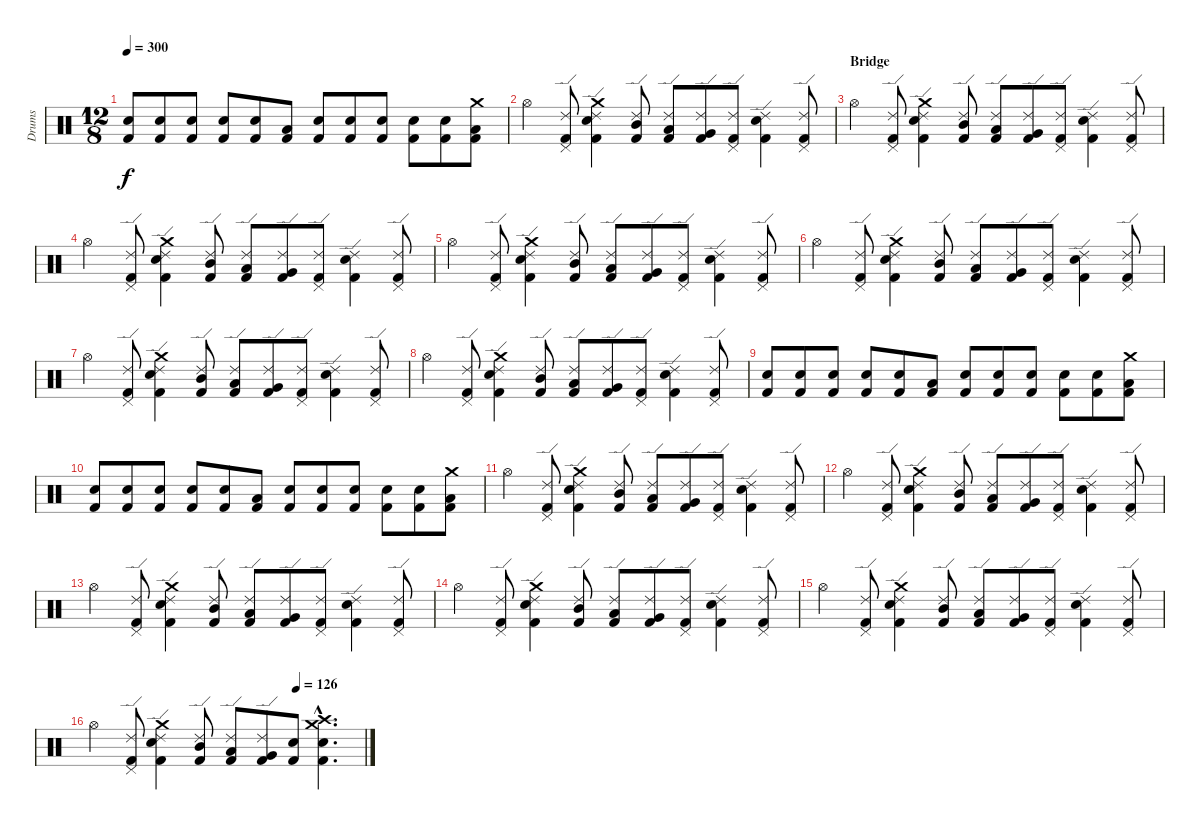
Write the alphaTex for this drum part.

\track ("Drums" "Drums") {instrument percussion}
\staff {score}
\articulation defaults
\ts (12 8)
\tempo 300
\clef neutral
\ks c
("Snare (hit) 2" "Kick (hit) 2").8{dy f} ("Snare (hit) 2" "Kick (hit) 2").8 ("Snare (hit) 2" "Kick (hit) 2").8 ("Snare (hit) 2" "Kick (hit) 2").8 ("Snare (hit) 2" "Kick (hit) 2").8 ("Low Tom (hit)" "Kick (hit) 2").8 ("Snare (hit) 2" "Kick (hit) 2").8 ("Snare (hit) 2" "Kick (hit) 2").8 ("Snare (hit) 2" "Kick (hit) 2").8 ("Snare (hit) 2" "Kick (hit) 2").8 ("Snare (hit) 2" "Kick (hit) 2").8 ("Crash medium (hit)" "Low Tom (hit)" "Kick (hit) 2").8 |
"Hi-Hat (open)".4 ("Ride (edge) 2" "Pedal Hi-Hat (hit)" "Kick (hit) 2").8 ("Ride (edge) 2" "Crash medium (hit)" "Snare (hit) 2" "Kick (hit) 2").4 ("Ride (edge) 2" "Mid Tom (hit)" "Kick (hit) 2").8 ("Ride (edge) 2" "Low Tom (hit)" "Kick (hit) 2").8 ("Ride (edge) 2" "Very Low Tom (hit)" "Kick (hit) 2").8 ("Ride (edge) 2" "Pedal Hi-Hat (hit)" "Kick (hit) 2").8 ("Ride (edge) 2" "Snare (hit) 2" "Kick (hit) 2").4 ("Ride (edge) 2" "Pedal Hi-Hat (hit)" "Kick (hit) 2").8 |
\section ("" "Bridge")
"Hi-Hat (open)".4 ("Ride (edge) 2" "Pedal Hi-Hat (hit)" "Kick (hit) 2").8 ("Ride (edge) 2" "Crash medium (hit)" "Snare (hit) 2" "Kick (hit) 2").4 ("Ride (edge) 2" "Mid Tom (hit)" "Kick (hit) 2").8 ("Ride (edge) 2" "Low Tom (hit)" "Kick (hit) 2").8 ("Ride (edge) 2" "Very Low Tom (hit)" "Kick (hit) 2").8 ("Ride (edge) 2" "Pedal Hi-Hat (hit)" "Kick (hit) 2").8 ("Ride (edge) 2" "Snare (hit) 2" "Kick (hit) 2").4 ("Ride (edge) 2" "Pedal Hi-Hat (hit)" "Kick (hit) 2").8 |
"Hi-Hat (open)".4 ("Ride (edge) 2" "Pedal Hi-Hat (hit)" "Kick (hit) 2").8 ("Ride (edge) 2" "Crash medium (hit)" "Snare (hit) 2" "Kick (hit) 2").4 ("Ride (edge) 2" "Mid Tom (hit)" "Kick (hit) 2").8 ("Ride (edge) 2" "Low Tom (hit)" "Kick (hit) 2").8 ("Ride (edge) 2" "Very Low Tom (hit)" "Kick (hit) 2").8 ("Ride (edge) 2" "Pedal Hi-Hat (hit)" "Kick (hit) 2").8 ("Ride (edge) 2" "Snare (hit) 2" "Kick (hit) 2").4 ("Ride (edge) 2" "Pedal Hi-Hat (hit)" "Kick (hit) 2").8 |
"Hi-Hat (open)".4 ("Ride (edge) 2" "Pedal Hi-Hat (hit)" "Kick (hit) 2").8 ("Ride (edge) 2" "Crash medium (hit)" "Snare (hit) 2" "Kick (hit) 2").4 ("Ride (edge) 2" "Mid Tom (hit)" "Kick (hit) 2").8 ("Ride (edge) 2" "Low Tom (hit)" "Kick (hit) 2").8 ("Ride (edge) 2" "Very Low Tom (hit)" "Kick (hit) 2").8 ("Ride (edge) 2" "Pedal Hi-Hat (hit)" "Kick (hit) 2").8 ("Ride (edge) 2" "Snare (hit) 2" "Kick (hit) 2").4 ("Ride (edge) 2" "Pedal Hi-Hat (hit)" "Kick (hit) 2").8 |
"Hi-Hat (open)".4 ("Ride (edge) 2" "Pedal Hi-Hat (hit)" "Kick (hit) 2").8 ("Ride (edge) 2" "Crash medium (hit)" "Snare (hit) 2" "Kick (hit) 2").4 ("Ride (edge) 2" "Mid Tom (hit)" "Kick (hit) 2").8 ("Ride (edge) 2" "Low Tom (hit)" "Kick (hit) 2").8 ("Ride (edge) 2" "Very Low Tom (hit)" "Kick (hit) 2").8 ("Ride (edge) 2" "Pedal Hi-Hat (hit)" "Kick (hit) 2").8 ("Ride (edge) 2" "Snare (hit) 2" "Kick (hit) 2").4 ("Ride (edge) 2" "Pedal Hi-Hat (hit)" "Kick (hit) 2").8 |
"Hi-Hat (open)".4 ("Ride (edge) 2" "Pedal Hi-Hat (hit)" "Kick (hit) 2").8 ("Ride (edge) 2" "Crash medium (hit)" "Snare (hit) 2" "Kick (hit) 2").4 ("Ride (edge) 2" "Mid Tom (hit)" "Kick (hit) 2").8 ("Ride (edge) 2" "Low Tom (hit)" "Kick (hit) 2").8 ("Ride (edge) 2" "Very Low Tom (hit)" "Kick (hit) 2").8 ("Ride (edge) 2" "Pedal Hi-Hat (hit)" "Kick (hit) 2").8 ("Ride (edge) 2" "Snare (hit) 2" "Kick (hit) 2").4 ("Ride (edge) 2" "Pedal Hi-Hat (hit)" "Kick (hit) 2").8 |
"Hi-Hat (open)".4 ("Ride (edge) 2" "Pedal Hi-Hat (hit)" "Kick (hit) 2").8 ("Ride (edge) 2" "Crash medium (hit)" "Snare (hit) 2" "Kick (hit) 2").4 ("Ride (edge) 2" "Mid Tom (hit)" "Kick (hit) 2").8 ("Ride (edge) 2" "Low Tom (hit)" "Kick (hit) 2").8 ("Ride (edge) 2" "Very Low Tom (hit)" "Kick (hit) 2").8 ("Ride (edge) 2" "Pedal Hi-Hat (hit)" "Kick (hit) 2").8 ("Ride (edge) 2" "Snare (hit) 2" "Kick (hit) 2").4 ("Ride (edge) 2" "Pedal Hi-Hat (hit)" "Kick (hit) 2").8 |
("Snare (hit) 2" "Kick (hit) 2").8 ("Snare (hit) 2" "Kick (hit) 2").8 ("Snare (hit) 2" "Kick (hit) 2").8 ("Snare (hit) 2" "Kick (hit) 2").8 ("Snare (hit) 2" "Kick (hit) 2").8 ("Low Tom (hit)" "Kick (hit) 2").8 ("Snare (hit) 2" "Kick (hit) 2").8 ("Snare (hit) 2" "Kick (hit) 2").8 ("Snare (hit) 2" "Kick (hit) 2").8 ("Snare (hit) 2" "Kick (hit) 2").8 ("Snare (hit) 2" "Kick (hit) 2").8 ("Crash medium (hit)" "Low Tom (hit)" "Kick (hit) 2").8 |
("Snare (hit) 2" "Kick (hit) 2").8 ("Snare (hit) 2" "Kick (hit) 2").8 ("Snare (hit) 2" "Kick (hit) 2").8 ("Snare (hit) 2" "Kick (hit) 2").8 ("Snare (hit) 2" "Kick (hit) 2").8 ("Low Tom (hit)" "Kick (hit) 2").8 ("Snare (hit) 2" "Kick (hit) 2").8 ("Snare (hit) 2" "Kick (hit) 2").8 ("Snare (hit) 2" "Kick (hit) 2").8 ("Snare (hit) 2" "Kick (hit) 2").8 ("Snare (hit) 2" "Kick (hit) 2").8 ("Crash medium (hit)" "Low Tom (hit)" "Kick (hit) 2").8 |
"Hi-Hat (open)".4 ("Ride (edge) 2" "Pedal Hi-Hat (hit)" "Kick (hit) 2").8 ("Ride (edge) 2" "Crash medium (hit)" "Snare (hit) 2" "Kick (hit) 2").4 ("Ride (edge) 2" "Mid Tom (hit)" "Kick (hit) 2").8 ("Ride (edge) 2" "Low Tom (hit)" "Kick (hit) 2").8 ("Ride (edge) 2" "Very Low Tom (hit)" "Kick (hit) 2").8 ("Ride (edge) 2" "Pedal Hi-Hat (hit)" "Kick (hit) 2").8 ("Ride (edge) 2" "Snare (hit) 2" "Kick (hit) 2").4 ("Ride (edge) 2" "Pedal Hi-Hat (hit)" "Kick (hit) 2").8 |
"Hi-Hat (open)".4 ("Ride (edge) 2" "Pedal Hi-Hat (hit)" "Kick (hit) 2").8 ("Ride (edge) 2" "Crash medium (hit)" "Snare (hit) 2" "Kick (hit) 2").4 ("Ride (edge) 2" "Mid Tom (hit)" "Kick (hit) 2").8 ("Ride (edge) 2" "Low Tom (hit)" "Kick (hit) 2").8 ("Ride (edge) 2" "Very Low Tom (hit)" "Kick (hit) 2").8 ("Ride (edge) 2" "Pedal Hi-Hat (hit)" "Kick (hit) 2").8 ("Ride (edge) 2" "Snare (hit) 2" "Kick (hit) 2").4 ("Ride (edge) 2" "Pedal Hi-Hat (hit)" "Kick (hit) 2").8 |
"Hi-Hat (open)".4 ("Ride (edge) 2" "Pedal Hi-Hat (hit)" "Kick (hit) 2").8 ("Ride (edge) 2" "Crash medium (hit)" "Snare (hit) 2" "Kick (hit) 2").4 ("Ride (edge) 2" "Mid Tom (hit)" "Kick (hit) 2").8 ("Ride (edge) 2" "Low Tom (hit)" "Kick (hit) 2").8 ("Ride (edge) 2" "Very Low Tom (hit)" "Kick (hit) 2").8 ("Ride (edge) 2" "Pedal Hi-Hat (hit)" "Kick (hit) 2").8 ("Ride (edge) 2" "Snare (hit) 2" "Kick (hit) 2").4 ("Ride (edge) 2" "Pedal Hi-Hat (hit)" "Kick (hit) 2").8 |
"Hi-Hat (open)".4 ("Ride (edge) 2" "Pedal Hi-Hat (hit)" "Kick (hit) 2").8 ("Ride (edge) 2" "Crash medium (hit)" "Snare (hit) 2" "Kick (hit) 2").4 ("Ride (edge) 2" "Mid Tom (hit)" "Kick (hit) 2").8 ("Ride (edge) 2" "Low Tom (hit)" "Kick (hit) 2").8 ("Ride (edge) 2" "Very Low Tom (hit)" "Kick (hit) 2").8 ("Ride (edge) 2" "Pedal Hi-Hat (hit)" "Kick (hit) 2").8 ("Ride (edge) 2" "Snare (hit) 2" "Kick (hit) 2").4 ("Ride (edge) 2" "Pedal Hi-Hat (hit)" "Kick (hit) 2").8 |
"Hi-Hat (open)".4 ("Ride (edge) 2" "Pedal Hi-Hat (hit)" "Kick (hit) 2").8 ("Ride (edge) 2" "Crash medium (hit)" "Snare (hit) 2" "Kick (hit) 2").4 ("Ride (edge) 2" "Mid Tom (hit)" "Kick (hit) 2").8 ("Ride (edge) 2" "Low Tom (hit)" "Kick (hit) 2").8 ("Ride (edge) 2" "Very Low Tom (hit)" "Kick (hit) 2").8 ("Ride (edge) 2" "Pedal Hi-Hat (hit)" "Kick (hit) 2").8 ("Ride (edge) 2" "Snare (hit) 2" "Kick (hit) 2").4 ("Ride (edge) 2" "Pedal Hi-Hat (hit)" "Kick (hit) 2").8 |
\tempo (126 0.75)
"Hi-Hat (open)".4 ("Ride (edge) 2" "Pedal Hi-Hat (hit)" "Kick (hit) 2").8 ("Ride (edge) 2" "Crash medium (hit)" "Snare (hit) 2" "Kick (hit) 2").4 ("Ride (edge) 2" "Mid Tom (hit)" "Kick (hit) 2").8 ("Ride (edge) 2" "Low Tom (hit)" "Kick (hit) 2").8 ("Ride (edge) 2" "Very Low Tom (hit)" "Kick (hit) 2").8 ("Snare (hit) 2" "Kick (hit) 2").8 ("Crash medium (hit)"{hac} "Crash high (hit)"{hac} "Snare (hit) 2"{hac} "Kick (hit) 2"{hac}).4{d}
